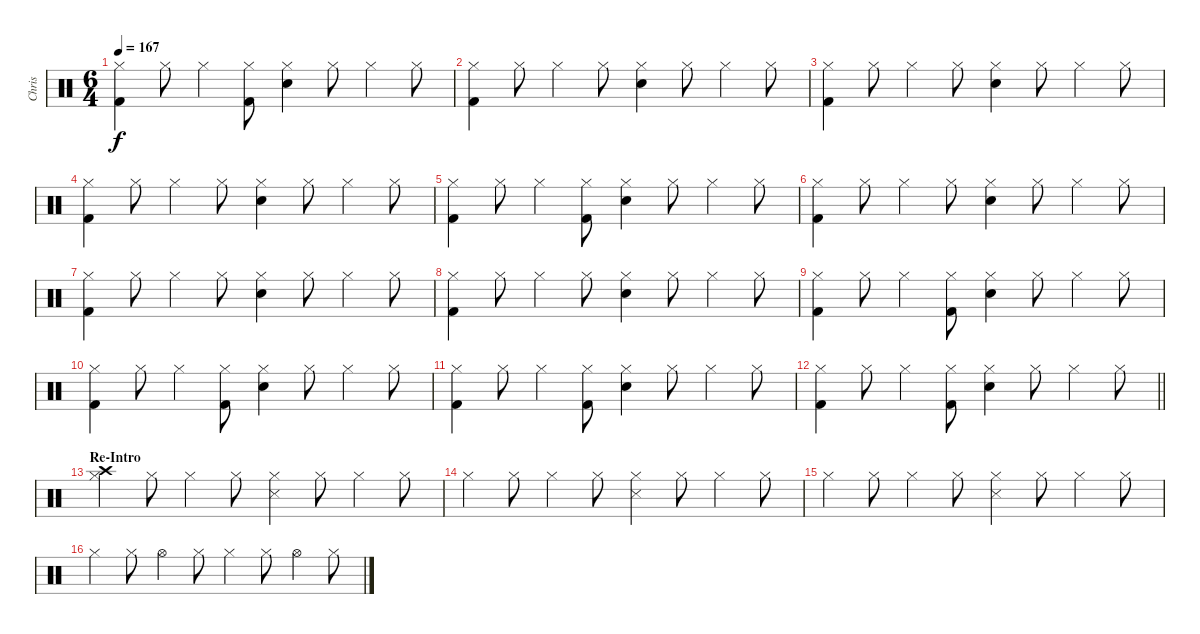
\track ("Chris" "Chris") {instrument percussion}
\staff {score}
\articulation defaults
\ts (6 4)
\tempo 167
\clef neutral
\ks c
("Hi-Hat (closed)" "Kick (hit) 2").4{dy f} "Hi-Hat (closed)".8 "Hi-Hat (closed)".4 ("Hi-Hat (closed)" "Kick (hit) 2").8 ("Hi-Hat (closed)" "Electric Snare (hit)").4 "Hi-Hat (closed)".8 "Hi-Hat (closed)".4 "Hi-Hat (closed)".8 |
("Hi-Hat (closed)" "Kick (hit) 2").4 "Hi-Hat (closed)".8 "Hi-Hat (closed)".4 "Hi-Hat (closed)".8 ("Hi-Hat (closed)" "Electric Snare (hit)").4 "Hi-Hat (closed)".8 "Hi-Hat (closed)".4 "Hi-Hat (closed)".8 |
("Hi-Hat (closed)" "Kick (hit) 2").4 "Hi-Hat (closed)".8 "Hi-Hat (closed)".4 "Hi-Hat (closed)".8 ("Hi-Hat (closed)" "Electric Snare (hit)").4 "Hi-Hat (closed)".8 "Hi-Hat (closed)".4 "Hi-Hat (closed)".8 |
("Hi-Hat (closed)" "Kick (hit) 2").4 "Hi-Hat (closed)".8 "Hi-Hat (closed)".4 "Hi-Hat (closed)".8 ("Hi-Hat (closed)" "Electric Snare (hit)").4 "Hi-Hat (closed)".8 "Hi-Hat (closed)".4 "Hi-Hat (closed)".8 |
("Hi-Hat (closed)" "Kick (hit) 2").4 "Hi-Hat (closed)".8 "Hi-Hat (closed)".4 ("Hi-Hat (closed)" "Kick (hit) 2").8 ("Hi-Hat (closed)" "Electric Snare (hit)").4 "Hi-Hat (closed)".8 "Hi-Hat (closed)".4 "Hi-Hat (closed)".8 |
("Hi-Hat (closed)" "Kick (hit) 2").4 "Hi-Hat (closed)".8 "Hi-Hat (closed)".4 "Hi-Hat (closed)".8 ("Hi-Hat (closed)" "Electric Snare (hit)").4 "Hi-Hat (closed)".8 "Hi-Hat (closed)".4 "Hi-Hat (closed)".8 |
("Hi-Hat (closed)" "Kick (hit) 2").4 "Hi-Hat (closed)".8 "Hi-Hat (closed)".4 "Hi-Hat (closed)".8 ("Hi-Hat (closed)" "Electric Snare (hit)").4 "Hi-Hat (closed)".8 "Hi-Hat (closed)".4 "Hi-Hat (closed)".8 |
("Hi-Hat (closed)" "Kick (hit) 2").4 "Hi-Hat (closed)".8 "Hi-Hat (closed)".4 "Hi-Hat (closed)".8 ("Hi-Hat (closed)" "Electric Snare (hit)").4 "Hi-Hat (closed)".8 "Hi-Hat (closed)".4 "Hi-Hat (closed)".8 |
("Hi-Hat (closed)" "Kick (hit) 2").4 "Hi-Hat (closed)".8 "Hi-Hat (closed)".4 ("Hi-Hat (closed)" "Kick (hit) 2").8 ("Hi-Hat (closed)" "Electric Snare (hit)").4 "Hi-Hat (closed)".8 "Hi-Hat (closed)".4 "Hi-Hat (closed)".8 |
("Hi-Hat (closed)" "Kick (hit) 2").4 "Hi-Hat (closed)".8 "Hi-Hat (closed)".4 ("Hi-Hat (closed)" "Kick (hit) 2").8 ("Hi-Hat (closed)" "Electric Snare (hit)").4 "Hi-Hat (closed)".8 "Hi-Hat (closed)".4 "Hi-Hat (closed)".8 |
("Hi-Hat (closed)" "Kick (hit) 2").4 "Hi-Hat (closed)".8 "Hi-Hat (closed)".4 ("Hi-Hat (closed)" "Kick (hit) 2").8 ("Hi-Hat (closed)" "Electric Snare (hit)").4 "Hi-Hat (closed)".8 "Hi-Hat (closed)".4 "Hi-Hat (closed)".8 |
\barLineRight lightlight
("Hi-Hat (closed)" "Kick (hit) 2").4 "Hi-Hat (closed)".8 "Hi-Hat (closed)".4 ("Hi-Hat (closed)" "Kick (hit) 2").8 ("Hi-Hat (closed)" "Electric Snare (hit)").4 "Hi-Hat (closed)".8 "Hi-Hat (closed)".4 "Hi-Hat (closed)".8 |
\section ("" "Re-Intro")
("Crash high (hit)" "Hi-Hat (closed)").4 "Hi-Hat (closed)".8 "Hi-Hat (closed)".4 "Hi-Hat (closed)".8 ("Hi-Hat (closed)" "Snare (side stick) 3").4 "Hi-Hat (closed)".8 "Hi-Hat (closed)".4 "Hi-Hat (closed)".8 |
"Hi-Hat (closed)".4 "Hi-Hat (closed)".8 "Hi-Hat (closed)".4 "Hi-Hat (closed)".8 ("Hi-Hat (closed)" "Snare (side stick) 3").4 "Hi-Hat (closed)".8 "Hi-Hat (closed)".4 "Hi-Hat (closed)".8 |
"Hi-Hat (closed)".4 "Hi-Hat (closed)".8 "Hi-Hat (closed)".4 "Hi-Hat (closed)".8 ("Hi-Hat (closed)" "Snare (side stick) 3").4 "Hi-Hat (closed)".8 "Hi-Hat (closed)".4 "Hi-Hat (closed)".8 |
"Hi-Hat (closed)".4 "Hi-Hat (closed)".8 "Hi-Hat (open)".4 "Hi-Hat (closed)".8 "Hi-Hat (closed)".4 "Hi-Hat (closed)".8 "Hi-Hat (open)".4 "Hi-Hat (closed)".8
